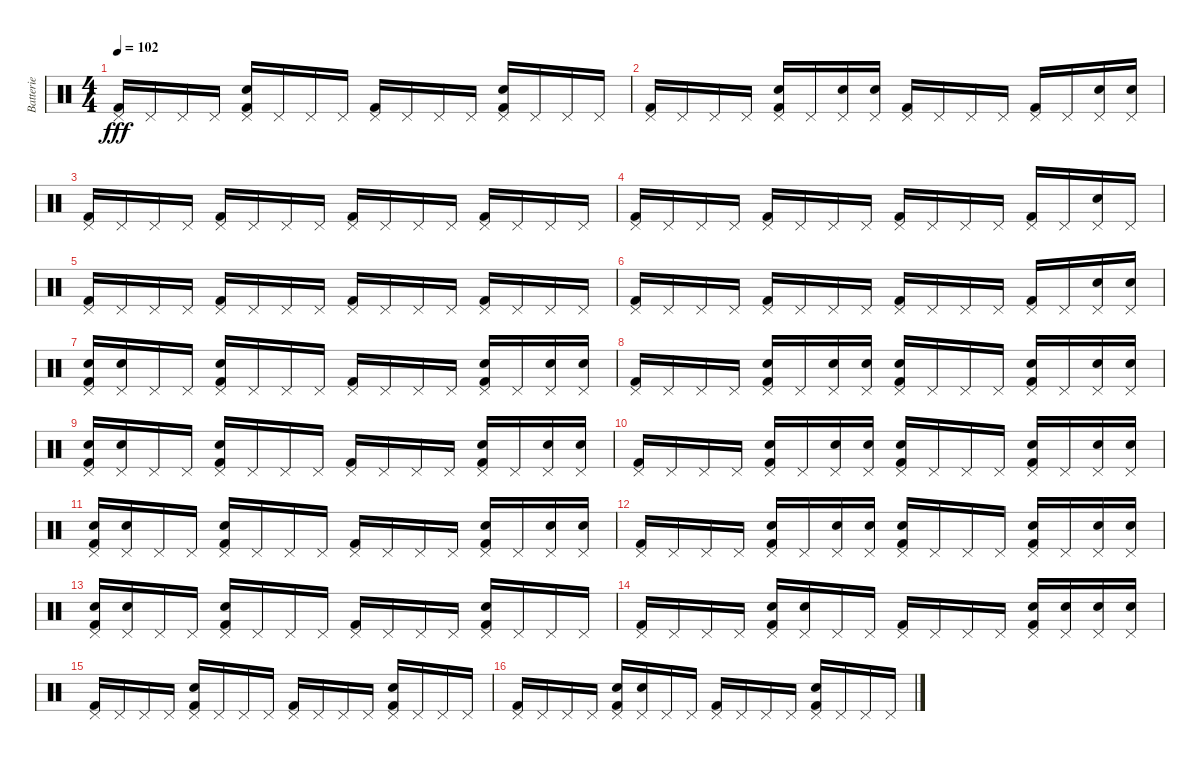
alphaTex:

\track ("Batterie" "Batterie") {instrument percussion}
\staff {score}
\articulation defaults
\ts (4 4)
\tempo 102
\clef neutral
\ks c
("Pedal Hi-Hat (hit)" "Kick (hit) 2").16{dy fff} "Pedal Hi-Hat (hit)".16 "Pedal Hi-Hat (hit)".16 "Pedal Hi-Hat (hit)".16 ("Pedal Hi-Hat (hit)" "Electric Snare (hit)" "Kick (hit) 2").16 "Pedal Hi-Hat (hit)".16 "Pedal Hi-Hat (hit)".16 "Pedal Hi-Hat (hit)".16 ("Pedal Hi-Hat (hit)" "Kick (hit) 2").16 "Pedal Hi-Hat (hit)".16 "Pedal Hi-Hat (hit)".16 "Pedal Hi-Hat (hit)".16 ("Pedal Hi-Hat (hit)" "Electric Snare (hit)" "Kick (hit) 2").16 "Pedal Hi-Hat (hit)".16 "Pedal Hi-Hat (hit)".16 "Pedal Hi-Hat (hit)".16 |
("Pedal Hi-Hat (hit)" "Kick (hit) 2").16 "Pedal Hi-Hat (hit)".16 "Pedal Hi-Hat (hit)".16 "Pedal Hi-Hat (hit)".16 ("Pedal Hi-Hat (hit)" "Electric Snare (hit)" "Kick (hit) 2").16 "Pedal Hi-Hat (hit)".16 ("Pedal Hi-Hat (hit)" "Electric Snare (hit)").16 ("Pedal Hi-Hat (hit)" "Electric Snare (hit)").16 ("Pedal Hi-Hat (hit)" "Kick (hit) 2").16 "Pedal Hi-Hat (hit)".16 "Pedal Hi-Hat (hit)".16 "Pedal Hi-Hat (hit)".16 ("Pedal Hi-Hat (hit)" "Kick (hit) 2").16 "Pedal Hi-Hat (hit)".16 ("Pedal Hi-Hat (hit)" "Electric Snare (hit)").16 ("Pedal Hi-Hat (hit)" "Electric Snare (hit)").16 |
("Pedal Hi-Hat (hit)" "Kick (hit) 2").16 "Pedal Hi-Hat (hit)".16 "Pedal Hi-Hat (hit)".16 "Pedal Hi-Hat (hit)".16 ("Pedal Hi-Hat (hit)" "Kick (hit) 2").16 "Pedal Hi-Hat (hit)".16 "Pedal Hi-Hat (hit)".16 "Pedal Hi-Hat (hit)".16 ("Pedal Hi-Hat (hit)" "Kick (hit) 2").16 "Pedal Hi-Hat (hit)".16 "Pedal Hi-Hat (hit)".16 "Pedal Hi-Hat (hit)".16 ("Pedal Hi-Hat (hit)" "Kick (hit) 2").16 "Pedal Hi-Hat (hit)".16 "Pedal Hi-Hat (hit)".16 "Pedal Hi-Hat (hit)".16 |
("Pedal Hi-Hat (hit)" "Kick (hit) 2").16 "Pedal Hi-Hat (hit)".16 "Pedal Hi-Hat (hit)".16 "Pedal Hi-Hat (hit)".16 ("Pedal Hi-Hat (hit)" "Kick (hit) 2").16 "Pedal Hi-Hat (hit)".16 "Pedal Hi-Hat (hit)".16 "Pedal Hi-Hat (hit)".16 ("Pedal Hi-Hat (hit)" "Kick (hit) 2").16 "Pedal Hi-Hat (hit)".16 "Pedal Hi-Hat (hit)".16 "Pedal Hi-Hat (hit)".16 ("Pedal Hi-Hat (hit)" "Kick (hit) 2").16 "Pedal Hi-Hat (hit)".16 ("Pedal Hi-Hat (hit)" "Electric Snare (hit)").16 "Pedal Hi-Hat (hit)".16 |
("Pedal Hi-Hat (hit)" "Kick (hit) 2").16 "Pedal Hi-Hat (hit)".16 "Pedal Hi-Hat (hit)".16 "Pedal Hi-Hat (hit)".16 ("Pedal Hi-Hat (hit)" "Kick (hit) 2").16 "Pedal Hi-Hat (hit)".16 "Pedal Hi-Hat (hit)".16 "Pedal Hi-Hat (hit)".16 ("Pedal Hi-Hat (hit)" "Kick (hit) 2").16 "Pedal Hi-Hat (hit)".16 "Pedal Hi-Hat (hit)".16 "Pedal Hi-Hat (hit)".16 ("Pedal Hi-Hat (hit)" "Kick (hit) 2").16 "Pedal Hi-Hat (hit)".16 "Pedal Hi-Hat (hit)".16 "Pedal Hi-Hat (hit)".16 |
("Pedal Hi-Hat (hit)" "Kick (hit) 2").16 "Pedal Hi-Hat (hit)".16 "Pedal Hi-Hat (hit)".16 "Pedal Hi-Hat (hit)".16 ("Pedal Hi-Hat (hit)" "Kick (hit) 2").16 "Pedal Hi-Hat (hit)".16 "Pedal Hi-Hat (hit)".16 "Pedal Hi-Hat (hit)".16 ("Pedal Hi-Hat (hit)" "Kick (hit) 2").16 "Pedal Hi-Hat (hit)".16 "Pedal Hi-Hat (hit)".16 "Pedal Hi-Hat (hit)".16 ("Pedal Hi-Hat (hit)" "Kick (hit) 2").16 "Pedal Hi-Hat (hit)".16 ("Pedal Hi-Hat (hit)" "Electric Snare (hit)").16 ("Pedal Hi-Hat (hit)" "Electric Snare (hit)").16 |
("Pedal Hi-Hat (hit)" "Electric Snare (hit)" "Kick (hit) 2").16 ("Pedal Hi-Hat (hit)" "Electric Snare (hit)").16 "Pedal Hi-Hat (hit)".16 "Pedal Hi-Hat (hit)".16 ("Pedal Hi-Hat (hit)" "Electric Snare (hit)" "Kick (hit) 2").16 "Pedal Hi-Hat (hit)".16 "Pedal Hi-Hat (hit)".16 "Pedal Hi-Hat (hit)".16 ("Pedal Hi-Hat (hit)" "Kick (hit) 2").16 "Pedal Hi-Hat (hit)".16 "Pedal Hi-Hat (hit)".16 "Pedal Hi-Hat (hit)".16 ("Pedal Hi-Hat (hit)" "Electric Snare (hit)" "Kick (hit) 2").16 "Pedal Hi-Hat (hit)".16 ("Pedal Hi-Hat (hit)" "Electric Snare (hit)").16 ("Pedal Hi-Hat (hit)" "Electric Snare (hit)").16 |
("Pedal Hi-Hat (hit)" "Kick (hit) 2").16 "Pedal Hi-Hat (hit)".16 "Pedal Hi-Hat (hit)".16 "Pedal Hi-Hat (hit)".16 ("Pedal Hi-Hat (hit)" "Electric Snare (hit)" "Kick (hit) 2").16 "Pedal Hi-Hat (hit)".16 ("Pedal Hi-Hat (hit)" "Electric Snare (hit)").16 ("Pedal Hi-Hat (hit)" "Electric Snare (hit)").16 ("Pedal Hi-Hat (hit)" "Electric Snare (hit)" "Kick (hit) 2").16 "Pedal Hi-Hat (hit)".16 "Pedal Hi-Hat (hit)".16 "Pedal Hi-Hat (hit)".16 ("Pedal Hi-Hat (hit)" "Electric Snare (hit)" "Kick (hit) 2").16 "Pedal Hi-Hat (hit)".16 ("Pedal Hi-Hat (hit)" "Electric Snare (hit)").16 ("Pedal Hi-Hat (hit)" "Electric Snare (hit)").16 |
("Pedal Hi-Hat (hit)" "Electric Snare (hit)" "Kick (hit) 2").16 ("Pedal Hi-Hat (hit)" "Electric Snare (hit)").16 "Pedal Hi-Hat (hit)".16 "Pedal Hi-Hat (hit)".16 ("Pedal Hi-Hat (hit)" "Electric Snare (hit)" "Kick (hit) 2").16 "Pedal Hi-Hat (hit)".16 "Pedal Hi-Hat (hit)".16 "Pedal Hi-Hat (hit)".16 ("Pedal Hi-Hat (hit)" "Kick (hit) 2").16 "Pedal Hi-Hat (hit)".16 "Pedal Hi-Hat (hit)".16 "Pedal Hi-Hat (hit)".16 ("Pedal Hi-Hat (hit)" "Electric Snare (hit)" "Kick (hit) 2").16 "Pedal Hi-Hat (hit)".16 ("Pedal Hi-Hat (hit)" "Electric Snare (hit)").16 ("Pedal Hi-Hat (hit)" "Electric Snare (hit)").16 |
("Pedal Hi-Hat (hit)" "Kick (hit) 2").16 "Pedal Hi-Hat (hit)".16 "Pedal Hi-Hat (hit)".16 "Pedal Hi-Hat (hit)".16 ("Pedal Hi-Hat (hit)" "Electric Snare (hit)" "Kick (hit) 2").16 "Pedal Hi-Hat (hit)".16 ("Pedal Hi-Hat (hit)" "Electric Snare (hit)").16 ("Pedal Hi-Hat (hit)" "Electric Snare (hit)").16 ("Pedal Hi-Hat (hit)" "Electric Snare (hit)" "Kick (hit) 2").16 "Pedal Hi-Hat (hit)".16 "Pedal Hi-Hat (hit)".16 "Pedal Hi-Hat (hit)".16 ("Pedal Hi-Hat (hit)" "Electric Snare (hit)" "Kick (hit) 2").16 "Pedal Hi-Hat (hit)".16 ("Pedal Hi-Hat (hit)" "Electric Snare (hit)").16 ("Pedal Hi-Hat (hit)" "Electric Snare (hit)").16 |
("Pedal Hi-Hat (hit)" "Electric Snare (hit)" "Kick (hit) 2").16 ("Pedal Hi-Hat (hit)" "Electric Snare (hit)").16 "Pedal Hi-Hat (hit)".16 "Pedal Hi-Hat (hit)".16 ("Pedal Hi-Hat (hit)" "Electric Snare (hit)" "Kick (hit) 2").16 "Pedal Hi-Hat (hit)".16 "Pedal Hi-Hat (hit)".16 "Pedal Hi-Hat (hit)".16 ("Pedal Hi-Hat (hit)" "Kick (hit) 2").16 "Pedal Hi-Hat (hit)".16 "Pedal Hi-Hat (hit)".16 "Pedal Hi-Hat (hit)".16 ("Pedal Hi-Hat (hit)" "Electric Snare (hit)" "Kick (hit) 2").16 "Pedal Hi-Hat (hit)".16 ("Pedal Hi-Hat (hit)" "Electric Snare (hit)").16 ("Pedal Hi-Hat (hit)" "Electric Snare (hit)").16 |
("Pedal Hi-Hat (hit)" "Kick (hit) 2").16 "Pedal Hi-Hat (hit)".16 "Pedal Hi-Hat (hit)".16 "Pedal Hi-Hat (hit)".16 ("Pedal Hi-Hat (hit)" "Electric Snare (hit)" "Kick (hit) 2").16 "Pedal Hi-Hat (hit)".16 ("Pedal Hi-Hat (hit)" "Electric Snare (hit)").16 ("Pedal Hi-Hat (hit)" "Electric Snare (hit)").16 ("Pedal Hi-Hat (hit)" "Electric Snare (hit)" "Kick (hit) 2").16 "Pedal Hi-Hat (hit)".16 "Pedal Hi-Hat (hit)".16 "Pedal Hi-Hat (hit)".16 ("Pedal Hi-Hat (hit)" "Electric Snare (hit)" "Kick (hit) 2").16 "Pedal Hi-Hat (hit)".16 ("Pedal Hi-Hat (hit)" "Electric Snare (hit)").16 ("Pedal Hi-Hat (hit)" "Electric Snare (hit)").16 |
("Pedal Hi-Hat (hit)" "Electric Snare (hit)" "Kick (hit) 2").16 ("Pedal Hi-Hat (hit)" "Electric Snare (hit)").16 "Pedal Hi-Hat (hit)".16 "Pedal Hi-Hat (hit)".16 ("Pedal Hi-Hat (hit)" "Electric Snare (hit)" "Kick (hit) 2").16 "Pedal Hi-Hat (hit)".16 "Pedal Hi-Hat (hit)".16 "Pedal Hi-Hat (hit)".16 ("Pedal Hi-Hat (hit)" "Kick (hit) 2").16 "Pedal Hi-Hat (hit)".16 "Pedal Hi-Hat (hit)".16 "Pedal Hi-Hat (hit)".16 ("Pedal Hi-Hat (hit)" "Electric Snare (hit)" "Kick (hit) 2").16 "Pedal Hi-Hat (hit)".16 "Pedal Hi-Hat (hit)".16 "Pedal Hi-Hat (hit)".16 |
("Pedal Hi-Hat (hit)" "Kick (hit) 2").16 "Pedal Hi-Hat (hit)".16 "Pedal Hi-Hat (hit)".16 "Pedal Hi-Hat (hit)".16 ("Pedal Hi-Hat (hit)" "Electric Snare (hit)" "Kick (hit) 2").16 ("Pedal Hi-Hat (hit)" "Electric Snare (hit)").16 "Pedal Hi-Hat (hit)".16 "Pedal Hi-Hat (hit)".16 ("Pedal Hi-Hat (hit)" "Kick (hit) 2").16 "Pedal Hi-Hat (hit)".16 "Pedal Hi-Hat (hit)".16 "Pedal Hi-Hat (hit)".16 ("Pedal Hi-Hat (hit)" "Electric Snare (hit)" "Kick (hit) 2").16 ("Pedal Hi-Hat (hit)" "Electric Snare (hit)").16 ("Pedal Hi-Hat (hit)" "Electric Snare (hit)").16 ("Pedal Hi-Hat (hit)" "Electric Snare (hit)").16 |
("Pedal Hi-Hat (hit)" "Kick (hit) 2").16 "Pedal Hi-Hat (hit)".16 "Pedal Hi-Hat (hit)".16 "Pedal Hi-Hat (hit)".16 ("Pedal Hi-Hat (hit)" "Electric Snare (hit)" "Kick (hit) 2").16 "Pedal Hi-Hat (hit)".16 "Pedal Hi-Hat (hit)".16 "Pedal Hi-Hat (hit)".16 ("Pedal Hi-Hat (hit)" "Kick (hit) 2").16 "Pedal Hi-Hat (hit)".16 "Pedal Hi-Hat (hit)".16 "Pedal Hi-Hat (hit)".16 ("Pedal Hi-Hat (hit)" "Electric Snare (hit)" "Kick (hit) 2").16 "Pedal Hi-Hat (hit)".16 "Pedal Hi-Hat (hit)".16 "Pedal Hi-Hat (hit)".16 |
("Pedal Hi-Hat (hit)" "Kick (hit) 2").16 "Pedal Hi-Hat (hit)".16 "Pedal Hi-Hat (hit)".16 "Pedal Hi-Hat (hit)".16 ("Pedal Hi-Hat (hit)" "Electric Snare (hit)" "Kick (hit) 2").16 ("Pedal Hi-Hat (hit)" "Electric Snare (hit)").16 "Pedal Hi-Hat (hit)".16 "Pedal Hi-Hat (hit)".16 ("Pedal Hi-Hat (hit)" "Kick (hit) 2").16 "Pedal Hi-Hat (hit)".16 "Pedal Hi-Hat (hit)".16 "Pedal Hi-Hat (hit)".16 ("Pedal Hi-Hat (hit)" "Electric Snare (hit)" "Kick (hit) 2").16 "Pedal Hi-Hat (hit)".16 "Pedal Hi-Hat (hit)".16 "Pedal Hi-Hat (hit)".16
